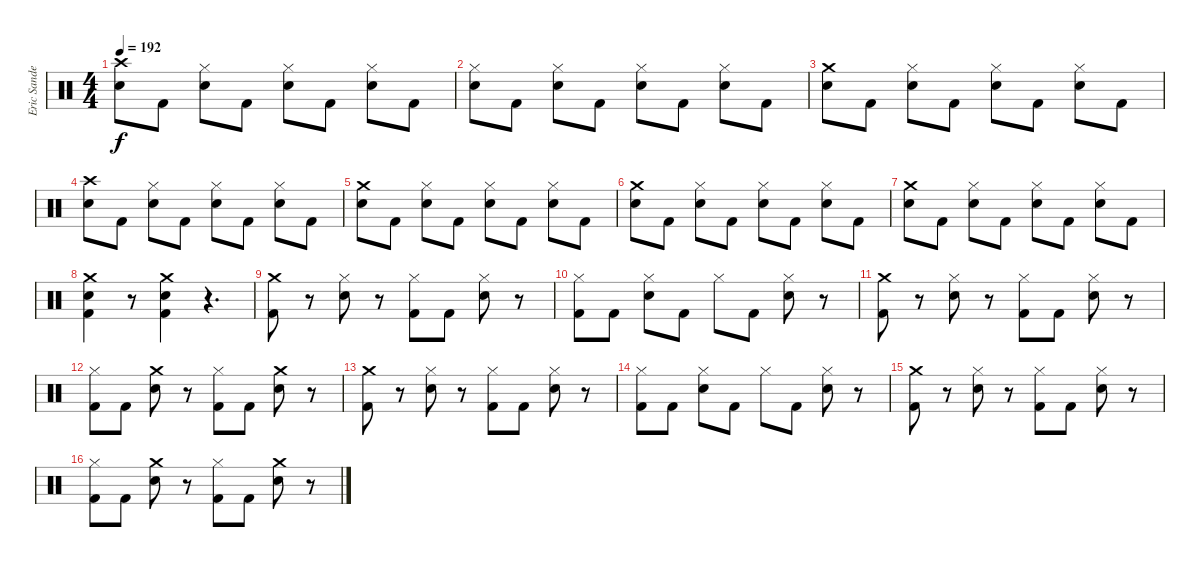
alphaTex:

\track ("Eric Sanden" "Eric Sande") {instrument percussion}
\staff {score}
\articulation defaults
\ts (4 4)
\tempo 192
\clef neutral
\ks c
("Crash high (hit)" "Snare (hit) 2").8{dy f} "Kick (hit) 2".8 ("Hi-Hat (closed)" "Snare (hit) 2").8 "Kick (hit) 2".8 ("Hi-Hat (closed)" "Snare (hit) 2").8 "Kick (hit) 2".8 ("Hi-Hat (closed)" "Snare (hit) 2").8 "Kick (hit) 2".8 |
("Hi-Hat (closed)" "Snare (hit) 2").8 "Kick (hit) 2".8 ("Hi-Hat (closed)" "Snare (hit) 2").8 "Kick (hit) 2".8 ("Hi-Hat (closed)" "Snare (hit) 2").8 "Kick (hit) 2".8 ("Hi-Hat (closed)" "Snare (hit) 2").8 "Kick (hit) 2".8 |
("Crash medium (hit)" "Snare (hit) 2").8 "Kick (hit) 2".8 ("Hi-Hat (closed)" "Snare (hit) 2").8 "Kick (hit) 2".8 ("Hi-Hat (closed)" "Snare (hit) 2").8 "Kick (hit) 2".8 ("Hi-Hat (closed)" "Snare (hit) 2").8 "Kick (hit) 2".8 |
("Crash high (hit)" "Snare (hit) 2").8 "Kick (hit) 2".8 ("Hi-Hat (closed)" "Snare (hit) 2").8 "Kick (hit) 2".8 ("Hi-Hat (closed)" "Snare (hit) 2").8 "Kick (hit) 2".8 ("Hi-Hat (closed)" "Snare (hit) 2").8 "Kick (hit) 2".8 |
("Crash medium (hit)" "Snare (hit) 2").8 "Kick (hit) 2".8 ("Hi-Hat (closed)" "Snare (hit) 2").8 "Kick (hit) 2".8 ("Hi-Hat (closed)" "Snare (hit) 2").8 "Kick (hit) 2".8 ("Hi-Hat (closed)" "Snare (hit) 2").8 "Kick (hit) 2".8 |
("Crash medium (hit)" "Snare (hit) 2").8 "Kick (hit) 2".8 ("Hi-Hat (closed)" "Snare (hit) 2").8 "Kick (hit) 2".8 ("Hi-Hat (closed)" "Snare (hit) 2").8 "Kick (hit) 2".8 ("Hi-Hat (closed)" "Snare (hit) 2").8 "Kick (hit) 2".8 |
("Crash medium (hit)" "Snare (hit) 2").8 "Kick (hit) 2".8 ("Hi-Hat (closed)" "Snare (hit) 2").8 "Kick (hit) 2".8 ("Hi-Hat (closed)" "Snare (hit) 2").8 "Kick (hit) 2".8 ("Hi-Hat (closed)" "Snare (hit) 2").8 "Kick (hit) 2".8 |
("Crash medium (hit)" "Snare (hit) 2" "Kick (hit) 2").4 r.8 ("Crash medium (hit)" "Snare (hit) 2" "Kick (hit) 2").4 r.4{d} |
("Crash medium (hit)" "Kick (hit) 2").8 r.8 ("Hi-Hat (closed)" "Snare (hit) 2").8 r.8 ("Hi-Hat (closed)" "Kick (hit) 2").8 "Kick (hit) 2".8 ("Hi-Hat (closed)" "Snare (hit) 2").8 r.8 |
("Hi-Hat (closed)" "Kick (hit) 2").8 "Kick (hit) 2".8 ("Hi-Hat (closed)" "Snare (hit) 2").8 "Kick (hit) 2".8 "Hi-Hat (closed)".8 "Kick (hit) 2".8 ("Hi-Hat (closed)" "Snare (hit) 2").8 r.8 |
("Crash medium (hit)" "Kick (hit) 2").8 r.8 ("Hi-Hat (closed)" "Snare (hit) 2").8 r.8 ("Hi-Hat (closed)" "Kick (hit) 2").8 "Kick (hit) 2".8 ("Hi-Hat (closed)" "Snare (hit) 2").8 r.8 |
("Hi-Hat (closed)" "Kick (hit) 2").8 "Kick (hit) 2".8 ("Crash medium (hit)" "Snare (hit) 2").8 r.8 ("Hi-Hat (closed)" "Kick (hit) 2").8 "Kick (hit) 2".8 ("Crash medium (hit)" "Snare (hit) 2").8 r.8 |
("Crash medium (hit)" "Kick (hit) 2").8 r.8 ("Hi-Hat (closed)" "Snare (hit) 2").8 r.8 ("Hi-Hat (closed)" "Kick (hit) 2").8 "Kick (hit) 2".8 ("Hi-Hat (closed)" "Snare (hit) 2").8 r.8 |
("Hi-Hat (closed)" "Kick (hit) 2").8 "Kick (hit) 2".8 ("Hi-Hat (closed)" "Snare (hit) 2").8 "Kick (hit) 2".8 "Hi-Hat (closed)".8 "Kick (hit) 2".8 ("Hi-Hat (closed)" "Snare (hit) 2").8 r.8 |
("Crash medium (hit)" "Kick (hit) 2").8 r.8 ("Hi-Hat (closed)" "Snare (hit) 2").8 r.8 ("Hi-Hat (closed)" "Kick (hit) 2").8 "Kick (hit) 2".8 ("Hi-Hat (closed)" "Snare (hit) 2").8 r.8 |
("Hi-Hat (closed)" "Kick (hit) 2").8 "Kick (hit) 2".8 ("Crash medium (hit)" "Snare (hit) 2").8 r.8 ("Hi-Hat (closed)" "Kick (hit) 2").8 "Kick (hit) 2".8 ("Crash medium (hit)" "Snare (hit) 2").8 r.8
